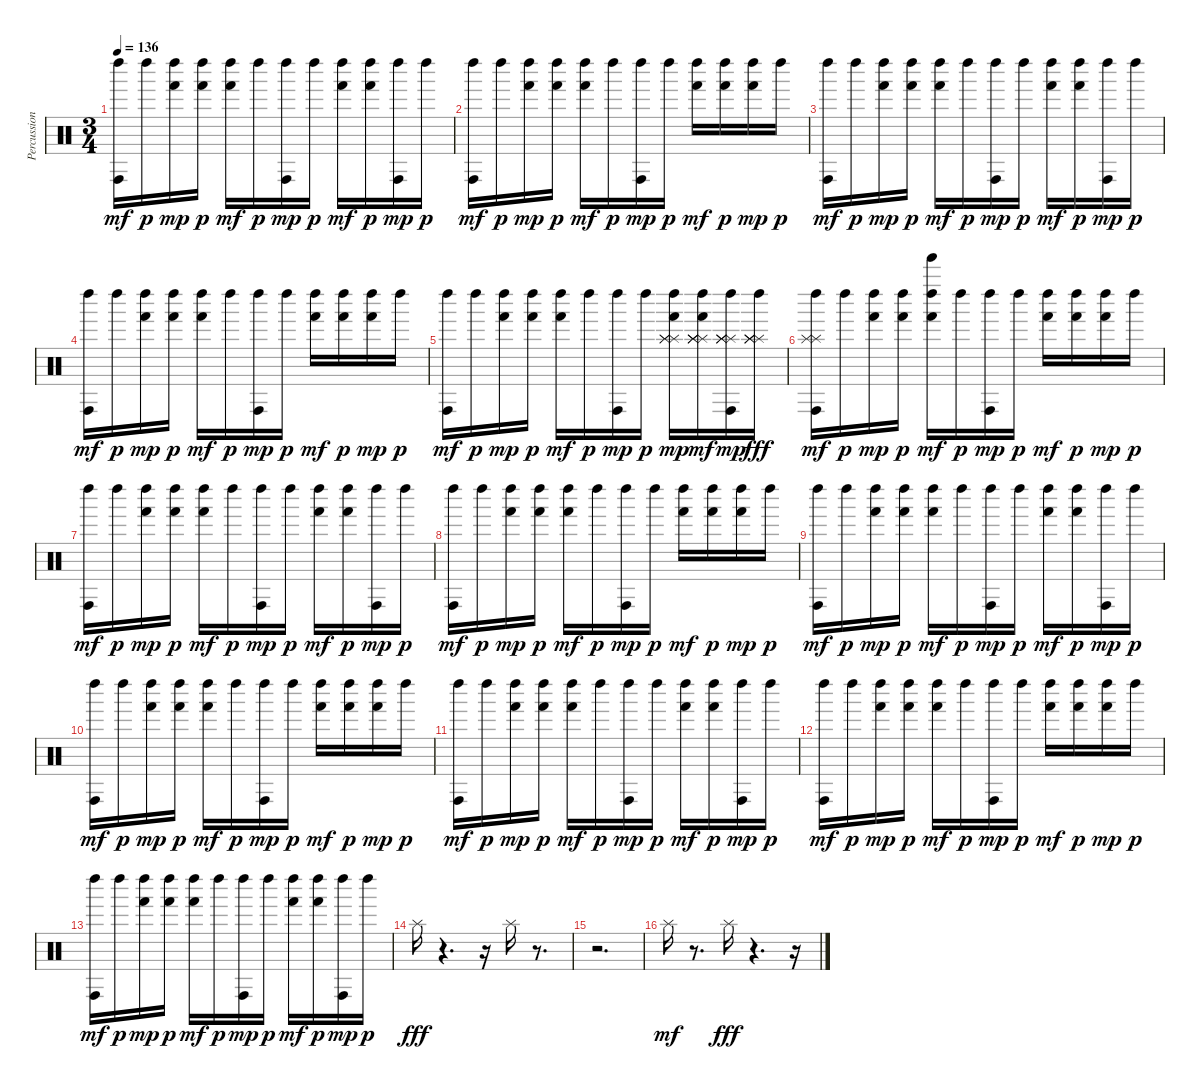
\track ("Percussion" "Percussion") {instrument percussion}
\staff {score}
\articulation defaults
\ts (3 4)
\tempo 136
\clef neutral
\ks c
("Conga high (hit)" "Left Maraca (hit)").16{dy mf} "Left Maraca (hit)".16{dy p} ("Hand (hit)" "Left Maraca (hit)").16{dy mp} ("Hand (hit)" "Left Maraca (hit)").16{dy p} ("Hand (hit)" "Left Maraca (hit)").16{dy mf} "Left Maraca (hit)".16{dy p} ("Conga high (hit)" "Left Maraca (hit)").16{dy mp} "Left Maraca (hit)".16{dy p} ("Hand (hit)" "Left Maraca (hit)").16{dy mf} ("Hand (hit)" "Left Maraca (hit)").16{dy p} ("Conga high (hit)" "Left Maraca (hit)").16{dy mp} "Left Maraca (hit)".16{dy p} |
("Conga high (hit)" "Left Maraca (hit)").16{dy mf} "Left Maraca (hit)".16{dy p} ("Hand (hit)" "Left Maraca (hit)").16{dy mp} ("Hand (hit)" "Left Maraca (hit)").16{dy p} ("Hand (hit)" "Left Maraca (hit)").16{dy mf} "Left Maraca (hit)".16{dy p} ("Conga high (hit)" "Left Maraca (hit)").16{dy mp} "Left Maraca (hit)".16{dy p} ("Hand (hit)" "Left Maraca (hit)").16{dy mf} ("Hand (hit)" "Left Maraca (hit)").16{dy p} ("Hand (hit)" "Left Maraca (hit)").16{dy mp} "Left Maraca (hit)".16{dy p} |
("Conga high (hit)" "Left Maraca (hit)").16{dy mf} "Left Maraca (hit)".16{dy p} ("Hand (hit)" "Left Maraca (hit)").16{dy mp} ("Hand (hit)" "Left Maraca (hit)").16{dy p} ("Hand (hit)" "Left Maraca (hit)").16{dy mf} "Left Maraca (hit)".16{dy p} ("Conga high (hit)" "Left Maraca (hit)").16{dy mp} "Left Maraca (hit)".16{dy p} ("Hand (hit)" "Left Maraca (hit)").16{dy mf} ("Hand (hit)" "Left Maraca (hit)").16{dy p} ("Conga high (hit)" "Left Maraca (hit)").16{dy mp} "Left Maraca (hit)".16{dy p} |
("Conga high (hit)" "Left Maraca (hit)").16{dy mf} "Left Maraca (hit)".16{dy p} ("Hand (hit)" "Left Maraca (hit)").16{dy mp} ("Hand (hit)" "Left Maraca (hit)").16{dy p} ("Hand (hit)" "Left Maraca (hit)").16{dy mf} "Left Maraca (hit)".16{dy p} ("Conga high (hit)" "Left Maraca (hit)").16{dy mp} "Left Maraca (hit)".16{dy p} ("Hand (hit)" "Left Maraca (hit)").16{dy mf} ("Hand (hit)" "Left Maraca (hit)").16{dy p} ("Hand (hit)" "Left Maraca (hit)").16{dy mp} "Left Maraca (hit)".16{dy p} |
("Conga high (hit)" "Left Maraca (hit)").16{dy mf} "Left Maraca (hit)".16{dy p} ("Hand (hit)" "Left Maraca (hit)").16{dy mp} ("Hand (hit)" "Left Maraca (hit)").16{dy p} ("Hand (hit)" "Left Maraca (hit)").16{dy mf} "Left Maraca (hit)".16{dy p} ("Conga high (hit)" "Left Maraca (hit)").16{dy mp} "Left Maraca (hit)".16{dy p} ("Hand (hit)" "Splash (hit)" "Left Maraca (hit)" "Splash (hit)" "Splash (hit)").16{dy mp} ("Splash (hit)" "Hand (hit)" "Splash (hit)" "Left Maraca (hit)" "Splash (hit)" "Splash (hit)").16{dy mf} ("Splash (hit)" "Conga high (hit)" "Splash (hit)" "Left Maraca (hit)" "Splash (hit)" "Splash (hit)").16{dy mp} ("Splash (hit)" "Splash (hit)" "Left Maraca (hit)" "Splash (hit)" "Splash (hit)").16{dy fff} |
("Splash (hit)" "Splash (hit)" "Conga high (hit)" "Left Maraca (hit)").16{dy mf} "Left Maraca (hit)".16{dy p} ("Hand (hit)" "Left Maraca (hit)").16{dy mp} ("Hand (hit)" "Left Maraca (hit)").16{dy p} ("Hand (hit)" "Tinkle Bell (hit)" "Left Maraca (hit)").16{dy mf} "Left Maraca (hit)".16{dy p} ("Conga high (hit)" "Left Maraca (hit)").16{dy mp} "Left Maraca (hit)".16{dy p} ("Hand (hit)" "Left Maraca (hit)").16{dy mf} ("Hand (hit)" "Left Maraca (hit)").16{dy p} ("Hand (hit)" "Left Maraca (hit)").16{dy mp} "Left Maraca (hit)".16{dy p} |
("Conga high (hit)" "Left Maraca (hit)").16{dy mf} "Left Maraca (hit)".16{dy p} ("Hand (hit)" "Left Maraca (hit)").16{dy mp} ("Hand (hit)" "Left Maraca (hit)").16{dy p} ("Hand (hit)" "Left Maraca (hit)").16{dy mf} "Left Maraca (hit)".16{dy p} ("Conga high (hit)" "Left Maraca (hit)").16{dy mp} "Left Maraca (hit)".16{dy p} ("Hand (hit)" "Left Maraca (hit)").16{dy mf} ("Hand (hit)" "Left Maraca (hit)").16{dy p} ("Conga high (hit)" "Left Maraca (hit)").16{dy mp} "Left Maraca (hit)".16{dy p} |
("Conga high (hit)" "Left Maraca (hit)").16{dy mf} "Left Maraca (hit)".16{dy p} ("Hand (hit)" "Left Maraca (hit)").16{dy mp} ("Hand (hit)" "Left Maraca (hit)").16{dy p} ("Hand (hit)" "Left Maraca (hit)").16{dy mf} "Left Maraca (hit)".16{dy p} ("Conga high (hit)" "Left Maraca (hit)").16{dy mp} "Left Maraca (hit)".16{dy p} ("Hand (hit)" "Left Maraca (hit)").16{dy mf} ("Hand (hit)" "Left Maraca (hit)").16{dy p} ("Hand (hit)" "Left Maraca (hit)").16{dy mp} "Left Maraca (hit)".16{dy p} |
("Conga high (hit)" "Left Maraca (hit)").16{dy mf} "Left Maraca (hit)".16{dy p} ("Hand (hit)" "Left Maraca (hit)").16{dy mp} ("Hand (hit)" "Left Maraca (hit)").16{dy p} ("Hand (hit)" "Left Maraca (hit)").16{dy mf} "Left Maraca (hit)".16{dy p} ("Conga high (hit)" "Left Maraca (hit)").16{dy mp} "Left Maraca (hit)".16{dy p} ("Hand (hit)" "Left Maraca (hit)").16{dy mf} ("Hand (hit)" "Left Maraca (hit)").16{dy p} ("Conga high (hit)" "Left Maraca (hit)").16{dy mp} "Left Maraca (hit)".16{dy p} |
("Conga high (hit)" "Left Maraca (hit)").16{dy mf} "Left Maraca (hit)".16{dy p} ("Hand (hit)" "Left Maraca (hit)").16{dy mp} ("Hand (hit)" "Left Maraca (hit)").16{dy p} ("Hand (hit)" "Left Maraca (hit)").16{dy mf} "Left Maraca (hit)".16{dy p} ("Conga high (hit)" "Left Maraca (hit)").16{dy mp} "Left Maraca (hit)".16{dy p} ("Hand (hit)" "Left Maraca (hit)").16{dy mf} ("Hand (hit)" "Left Maraca (hit)").16{dy p} ("Hand (hit)" "Left Maraca (hit)").16{dy mp} "Left Maraca (hit)".16{dy p} |
("Conga high (hit)" "Left Maraca (hit)").16{dy mf} "Left Maraca (hit)".16{dy p} ("Hand (hit)" "Left Maraca (hit)").16{dy mp} ("Hand (hit)" "Left Maraca (hit)").16{dy p} ("Hand (hit)" "Left Maraca (hit)").16{dy mf} "Left Maraca (hit)".16{dy p} ("Conga high (hit)" "Left Maraca (hit)").16{dy mp} "Left Maraca (hit)".16{dy p} ("Hand (hit)" "Left Maraca (hit)").16{dy mf} ("Hand (hit)" "Left Maraca (hit)").16{dy p} ("Conga high (hit)" "Left Maraca (hit)").16{dy mp} "Left Maraca (hit)".16{dy p} |
("Conga high (hit)" "Left Maraca (hit)").16{dy mf} "Left Maraca (hit)".16{dy p} ("Hand (hit)" "Left Maraca (hit)").16{dy mp} ("Hand (hit)" "Left Maraca (hit)").16{dy p} ("Hand (hit)" "Left Maraca (hit)").16{dy mf} "Left Maraca (hit)".16{dy p} ("Conga high (hit)" "Left Maraca (hit)").16{dy mp} "Left Maraca (hit)".16{dy p} ("Hand (hit)" "Left Maraca (hit)").16{dy mf} ("Hand (hit)" "Left Maraca (hit)").16{dy p} ("Hand (hit)" "Left Maraca (hit)").16{dy mp} "Left Maraca (hit)".16{dy p} |
("Conga high (hit)" "Left Maraca (hit)").16{dy mf} "Left Maraca (hit)".16{dy p} ("Hand (hit)" "Left Maraca (hit)").16{dy mp} ("Hand (hit)" "Left Maraca (hit)").16{dy p} ("Hand (hit)" "Left Maraca (hit)").16{dy mf} "Left Maraca (hit)".16{dy p} ("Conga high (hit)" "Left Maraca (hit)").16{dy mp} "Left Maraca (hit)".16{dy p} ("Hand (hit)" "Left Maraca (hit)").16{dy mf} ("Hand (hit)" "Left Maraca (hit)").16{dy p} ("Conga high (hit)" "Left Maraca (hit)").16{dy mp} "Left Maraca (hit)".16{dy p} |
"Splash (hit)".16{dy fff} r.4{d} r.16 "Splash (hit)".16 r.8{d} |
r.2{d} |
"Splash (hit)".16{dy mf} r.8{d} "Splash (hit)".16{dy fff} r.4{d} r.16
